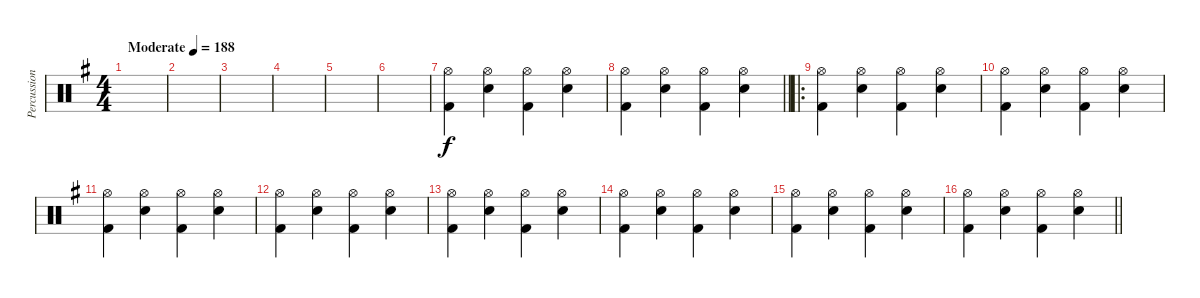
\track ("Percussion" "Percussion") {instrument percussion}
\staff {score}
\articulation defaults
\ts (4 4)
\tempo (188 "Moderate")
\clef neutral
\ks g
|
|
|
|
|
|
("Hi-Hat (open)" "Kick (hit) 2").4 ("Hi-Hat (open)" "Snare (hit) 2").4 ("Hi-Hat (open)" "Kick (hit) 2").4 ("Hi-Hat (open)" "Snare (hit) 2").4 |
\barLineRight lightlight
("Hi-Hat (open)" "Kick (hit) 2").4 ("Hi-Hat (open)" "Snare (hit) 2").4 ("Hi-Hat (open)" "Kick (hit) 2").4 ("Hi-Hat (open)" "Snare (hit) 2").4 |
\ro
("Hi-Hat (open)" "Kick (hit) 2").4 ("Hi-Hat (open)" "Snare (hit) 2").4 ("Hi-Hat (open)" "Kick (hit) 2").4 ("Hi-Hat (open)" "Snare (hit) 2").4 |
("Hi-Hat (open)" "Kick (hit) 2").4 ("Hi-Hat (open)" "Snare (hit) 2").4 ("Hi-Hat (open)" "Kick (hit) 2").4 ("Hi-Hat (open)" "Snare (hit) 2").4 |
("Hi-Hat (open)" "Kick (hit) 2").4 ("Hi-Hat (open)" "Snare (hit) 2").4 ("Hi-Hat (open)" "Kick (hit) 2").4 ("Hi-Hat (open)" "Snare (hit) 2").4 |
("Hi-Hat (open)" "Kick (hit) 2").4 ("Hi-Hat (open)" "Snare (hit) 2").4 ("Hi-Hat (open)" "Kick (hit) 2").4 ("Hi-Hat (open)" "Snare (hit) 2").4 |
("Hi-Hat (open)" "Kick (hit) 2").4 ("Hi-Hat (open)" "Snare (hit) 2").4 ("Hi-Hat (open)" "Kick (hit) 2").4 ("Hi-Hat (open)" "Snare (hit) 2").4 |
("Hi-Hat (open)" "Kick (hit) 2").4 ("Hi-Hat (open)" "Snare (hit) 2").4 ("Hi-Hat (open)" "Kick (hit) 2").4 ("Hi-Hat (open)" "Snare (hit) 2").4 |
("Hi-Hat (open)" "Kick (hit) 2").4 ("Hi-Hat (open)" "Snare (hit) 2").4 ("Hi-Hat (open)" "Kick (hit) 2").4 ("Hi-Hat (open)" "Snare (hit) 2").4 |
\barLineRight lightlight
("Hi-Hat (open)" "Kick (hit) 2").4 ("Hi-Hat (open)" "Snare (hit) 2").4 ("Hi-Hat (open)" "Kick (hit) 2").4 ("Hi-Hat (open)" "Snare (hit) 2").4
